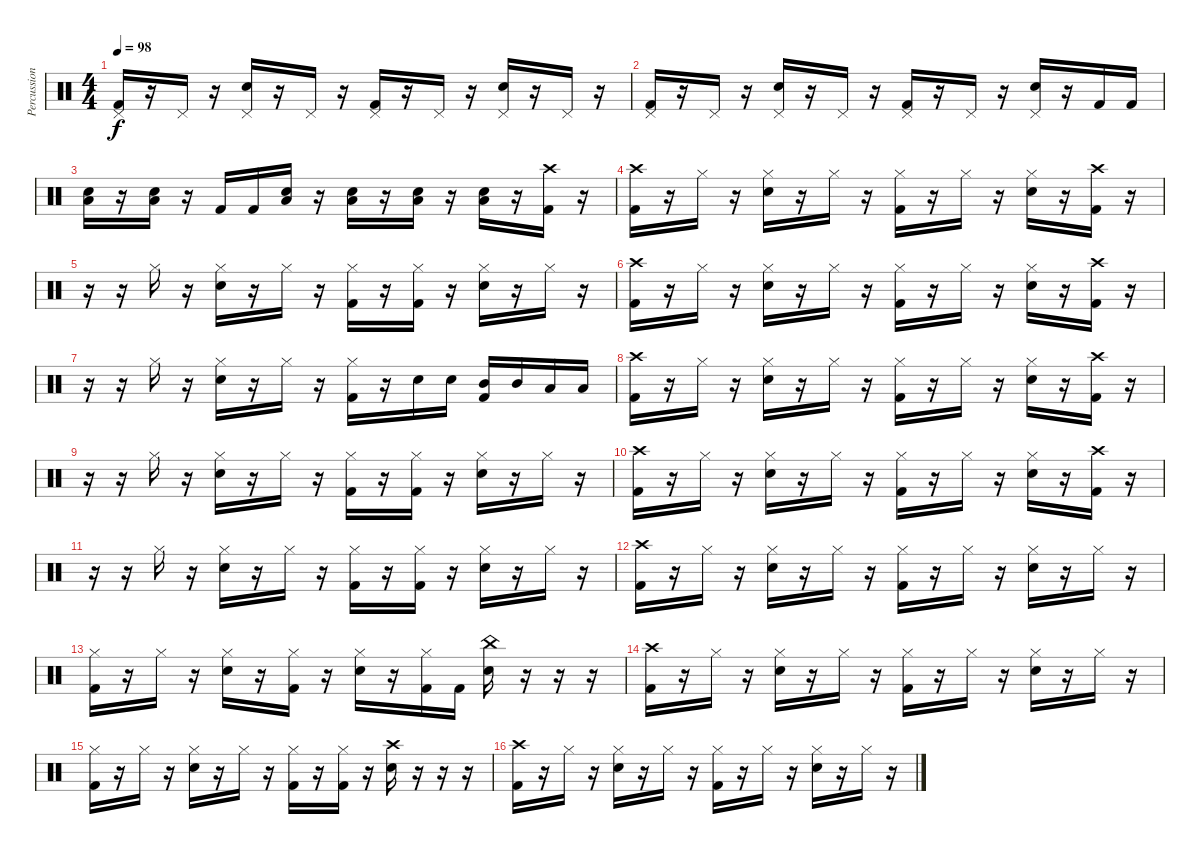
\track ("Percussion" "Percussion") {instrument percussion}
\staff {score}
\articulation defaults
\ts (4 4)
\tempo 98
\clef neutral
\ks c
("Pedal Hi-Hat (hit)" "Kick (hit) 2").16{dy f} r.16 "Pedal Hi-Hat (hit)".16 r.16 ("Pedal Hi-Hat (hit)" "Snare (hit) 2").16 r.16 "Pedal Hi-Hat (hit)".16 r.16 ("Pedal Hi-Hat (hit)" "Kick (hit) 2").16 r.16 "Pedal Hi-Hat (hit)".16 r.16 ("Pedal Hi-Hat (hit)" "Snare (hit) 2").16 r.16 "Pedal Hi-Hat (hit)".16 r.16 |
("Pedal Hi-Hat (hit)" "Kick (hit) 2").16 r.16 "Pedal Hi-Hat (hit)".16 r.16 ("Pedal Hi-Hat (hit)" "Snare (hit) 2").16 r.16 "Pedal Hi-Hat (hit)".16 r.16 ("Pedal Hi-Hat (hit)" "Kick (hit) 2").16 r.16 "Pedal Hi-Hat (hit)".16 r.16 ("Pedal Hi-Hat (hit)" "Snare (hit) 2").16 r.16 "Kick (hit) 2".16 "Kick (hit) 2".16 |
("Snare (hit) 2" "Low Floor Tom (hit)").16 r.16 ("Snare (hit) 2" "Low Floor Tom (hit)").16 r.16 "Kick (hit) 2".16 "Kick (hit) 2".16 ("Snare (hit) 2" "Low Floor Tom (hit)").16 r.16 ("Snare (hit) 2" "Low Floor Tom (hit)").16 r.16 ("Low Floor Tom (hit)" "Snare (hit) 2").16 r.16 ("Snare (hit) 2" "Low Floor Tom (hit)").16 r.16 ("Crash high (hit)" "Kick (hit) 2").16 r.16 |
("Crash high (hit)" "Kick (hit) 2").16 r.16 "Hi-Hat (closed)".16 r.16 ("Hi-Hat (closed)" "Snare (hit) 2").16 r.16 "Hi-Hat (closed)".16 r.16 ("Hi-Hat (closed)" "Kick (hit) 2").16 r.16 "Hi-Hat (closed)".16 r.16 ("Hi-Hat (closed)" "Snare (hit) 2").16 r.16 ("Crash high (hit)" "Kick (hit) 2").16 r.16 |
r.16 r.16 "Hi-Hat (closed)".16 r.16 ("Hi-Hat (closed)" "Snare (hit) 2").16 r.16 "Hi-Hat (closed)".16 r.16 ("Hi-Hat (closed)" "Kick (hit) 2").16 r.16 ("Hi-Hat (closed)" "Kick (hit) 2").16 r.16 ("Hi-Hat (closed)" "Snare (hit) 2").16 r.16 "Hi-Hat (closed)".16 r.16 |
("Crash high (hit)" "Kick (hit) 2").16 r.16 "Hi-Hat (closed)".16 r.16 ("Hi-Hat (closed)" "Snare (hit) 2").16 r.16 "Hi-Hat (closed)".16 r.16 ("Hi-Hat (closed)" "Kick (hit) 2").16 r.16 "Hi-Hat (closed)".16 r.16 ("Hi-Hat (closed)" "Snare (hit) 2").16 r.16 ("Crash high (hit)" "Kick (hit) 2").16 r.16 |
r.16 r.16 "Hi-Hat (closed)".16 r.16 ("Hi-Hat (closed)" "Snare (hit) 2").16 r.16 "Hi-Hat (closed)".16 r.16 ("Hi-Hat (closed)" "Kick (hit) 2").16 r.16 "Electric Snare (hit)".16 "Electric Snare (hit)".16 ("Mid Tom (hit)" "Kick (hit) 2").16 "Mid Tom (hit)".16 "Low Floor Tom (hit)".16 "Low Floor Tom (hit)".16 |
("Crash high (hit)" "Kick (hit) 2").16 r.16 "Hi-Hat (closed)".16 r.16 ("Snare (hit) 2" "Hi-Hat (closed)").16 r.16 "Hi-Hat (closed)".16 r.16 ("Hi-Hat (closed)" "Kick (hit) 2").16 r.16 "Hi-Hat (closed)".16 r.16 ("Hi-Hat (closed)" "Snare (hit) 2").16 r.16 ("Crash high (hit)" "Kick (hit) 2").16 r.16 |
r.16 r.16 "Hi-Hat (closed)".16 r.16 ("Hi-Hat (closed)" "Snare (hit) 2").16 r.16 "Hi-Hat (closed)".16 r.16 ("Hi-Hat (closed)" "Kick (hit) 2").16 r.16 ("Hi-Hat (closed)" "Kick (hit) 2").16 r.16 ("Hi-Hat (closed)" "Snare (hit) 2").16 r.16 "Hi-Hat (closed)".16 r.16 |
("Crash high (hit)" "Kick (hit) 2").16 r.16 "Hi-Hat (closed)".16 r.16 ("Snare (hit) 2" "Hi-Hat (closed)").16 r.16 "Hi-Hat (closed)".16 r.16 ("Hi-Hat (closed)" "Kick (hit) 2").16 r.16 "Hi-Hat (closed)".16 r.16 ("Hi-Hat (closed)" "Snare (hit) 2").16 r.16 ("Crash high (hit)" "Kick (hit) 2").16 r.16 |
r.16 r.16 "Hi-Hat (closed)".16 r.16 ("Hi-Hat (closed)" "Snare (hit) 2").16 r.16 "Hi-Hat (closed)".16 r.16 ("Hi-Hat (closed)" "Kick (hit) 2").16 r.16 ("Hi-Hat (closed)" "Kick (hit) 2").16 r.16 ("Hi-Hat (closed)" "Snare (hit) 2").16 r.16 "Hi-Hat (closed)".16 r.16 |
("Crash high (hit)" "Kick (hit) 2").16 r.16 "Hi-Hat (closed)".16 r.16 ("Hi-Hat (closed)" "Snare (hit) 2").16 r.16 "Hi-Hat (closed)".16 r.16 ("Hi-Hat (closed)" "Kick (hit) 2").16 r.16 "Hi-Hat (closed)".16 r.16 ("Hi-Hat (closed)" "Snare (hit) 2").16 r.16 "Hi-Hat (closed)".16 r.16 |
("Hi-Hat (closed)" "Kick (hit) 2").16 r.16 "Hi-Hat (closed)".16 r.16 ("Hi-Hat (closed)" "Snare (hit) 2").16 r.16 ("Hi-Hat (closed)" "Kick (hit) 2").16 r.16 ("Hi-Hat (closed)" "Snare (hit) 2").16 r.16 ("Hi-Hat (closed)" "Kick (hit) 2").16 "Kick (hit) 2".16 ("China (hit)" "Snare (hit) 2").16 r.16 r.16 r.16 |
("Crash high (hit)" "Kick (hit) 2").16 r.16 "Hi-Hat (closed)".16 r.16 ("Hi-Hat (closed)" "Snare (hit) 2").16 r.16 "Hi-Hat (closed)".16 r.16 ("Hi-Hat (closed)" "Kick (hit) 2").16 r.16 "Hi-Hat (closed)".16 r.16 ("Hi-Hat (closed)" "Snare (hit) 2").16 r.16 "Hi-Hat (closed)".16 r.16 |
("Hi-Hat (closed)" "Kick (hit) 2").16 r.16 "Hi-Hat (closed)".16 r.16 ("Hi-Hat (closed)" "Snare (hit) 2").16 r.16 "Hi-Hat (closed)".16 r.16 ("Hi-Hat (closed)" "Kick (hit) 2").16 r.16 ("Hi-Hat (closed)" "Kick (hit) 2").16 r.16 ("Crash high (hit)" "Snare (hit) 2").16 r.16 r.16 r.16 |
("Crash high (hit)" "Kick (hit) 2").16 r.16 "Hi-Hat (closed)".16 r.16 ("Hi-Hat (closed)" "Snare (hit) 2").16 r.16 "Hi-Hat (closed)".16 r.16 ("Hi-Hat (closed)" "Kick (hit) 2").16 r.16 "Hi-Hat (closed)".16 r.16 ("Hi-Hat (closed)" "Snare (hit) 2").16 r.16 "Hi-Hat (closed)".16 r.16
